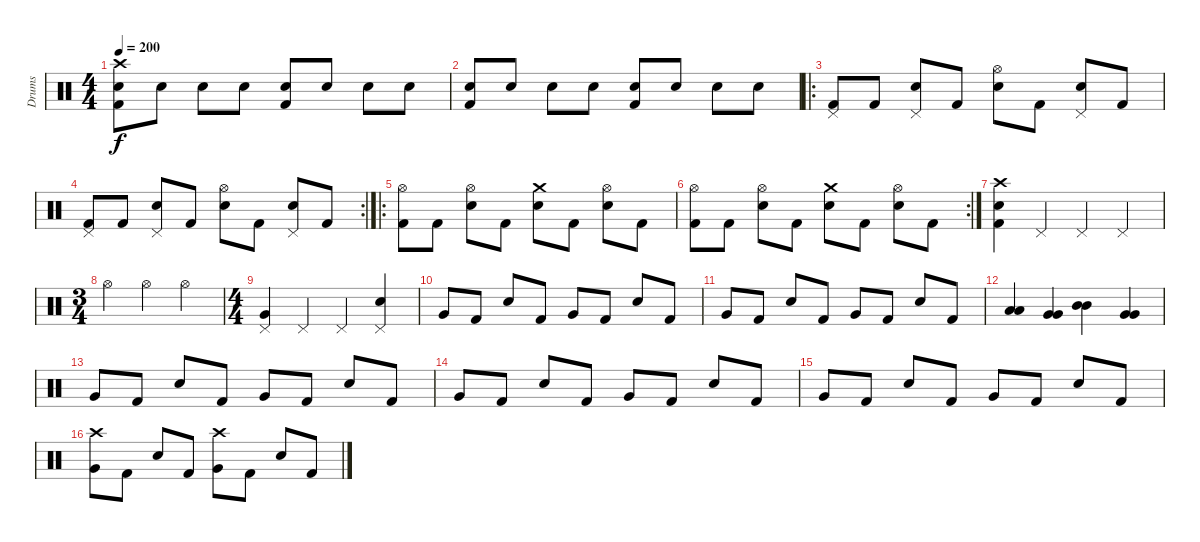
\track ("Drums" "Drums") {instrument percussion}
\staff {score}
\articulation defaults
\ts (4 4)
\tempo 200
\clef neutral
\ks c
("Crash high (hit)" "Electric Snare (hit)" "Kick (hit) 2").8{dy f} "Electric Snare (hit)".8 "Electric Snare (hit)".8 "Electric Snare (hit)".8 ("Electric Snare (hit)" "Kick (hit) 2").8 "Electric Snare (hit)".8 "Electric Snare (hit)".8 "Electric Snare (hit)".8 |
("Electric Snare (hit)" "Kick (hit) 2").8 "Electric Snare (hit)".8 "Electric Snare (hit)".8 "Electric Snare (hit)".8 ("Electric Snare (hit)" "Kick (hit) 2").8 "Electric Snare (hit)".8 "Electric Snare (hit)".8 "Electric Snare (hit)".8 |
\ro
("Pedal Hi-Hat (hit)" "Kick (hit) 2").8 "Kick (hit) 2".8 ("Pedal Hi-Hat (hit)" "Snare (hit) 2").8 "Kick (hit) 2".8 ("Hi-Hat (open)" "Snare (hit) 2").8 "Kick (hit) 2".8 ("Pedal Hi-Hat (hit)" "Snare (hit) 2").8 "Kick (hit) 2".8 |
\rc 2
("Pedal Hi-Hat (hit)" "Kick (hit) 2").8 "Kick (hit) 2".8 ("Pedal Hi-Hat (hit)" "Snare (hit) 2").8 "Kick (hit) 2".8 ("Hi-Hat (open)" "Snare (hit) 2").8 "Kick (hit) 2".8 ("Pedal Hi-Hat (hit)" "Snare (hit) 2").8 "Kick (hit) 2".8 |
\ro
("Hi-Hat (open)" "Kick (hit) 2").8 "Kick (hit) 2".8 ("Hi-Hat (open)" "Snare (hit) 2").8 "Kick (hit) 2".8 ("Crash medium (hit)" "Snare (hit) 2").8 "Kick (hit) 2".8 ("Hi-Hat (open)" "Snare (hit) 2").8 "Kick (hit) 2".8 |
\rc 2
("Hi-Hat (open)" "Kick (hit) 2").8 "Kick (hit) 2".8 ("Hi-Hat (open)" "Snare (hit) 2").8 "Kick (hit) 2".8 ("Crash medium (hit)" "Snare (hit) 2").8 "Kick (hit) 2".8 ("Hi-Hat (open)" "Snare (hit) 2").8 "Kick (hit) 2".8 |
("Crash high (hit)" "Electric Snare (hit)" "Kick (hit) 2").4 "Pedal Hi-Hat (hit)".4 "Pedal Hi-Hat (hit)".4 "Pedal Hi-Hat (hit)".4 |
\ts (3 4)
"Hi-Hat (open)".4 "Hi-Hat (open)".4 "Hi-Hat (open)".4 |
\ts (4 4)
("Very Low Tom (hit)" "Pedal Hi-Hat (hit)").4 "Pedal Hi-Hat (hit)".4 "Pedal Hi-Hat (hit)".4 ("Pedal Hi-Hat (hit)" "Electric Snare (hit)").4 |
"Very Low Tom (hit)".8 "Kick (hit) 2".8 "Electric Snare (hit)".8 "Kick (hit) 2".8 "Very Low Tom (hit)".8 "Kick (hit) 2".8 "Electric Snare (hit)".8 "Kick (hit) 2".8 |
"Very Low Tom (hit)".8 "Kick (hit) 2".8 "Electric Snare (hit)".8 "Kick (hit) 2".8 "Very Low Tom (hit)".8 "Kick (hit) 2".8 "Electric Snare (hit)".8 "Kick (hit) 2".8 |
("Low Tom (hit)" "Low Tom (hit)").4 ("Very Low Tom (hit)" "Very Low Tom (hit)").4 ("Mid Tom (hit)" "Mid Tom (hit)").4 ("Very Low Tom (hit)" "Very Low Tom (hit)").4 |
"Very Low Tom (hit)".8 "Kick (hit) 2".8 "Electric Snare (hit)".8 "Kick (hit) 2".8 "Very Low Tom (hit)".8 "Kick (hit) 2".8 "Electric Snare (hit)".8 "Kick (hit) 2".8 |
"Very Low Tom (hit)".8 "Kick (hit) 2".8 "Electric Snare (hit)".8 "Kick (hit) 2".8 "Very Low Tom (hit)".8 "Kick (hit) 2".8 "Electric Snare (hit)".8 "Kick (hit) 2".8 |
"Very Low Tom (hit)".8 "Kick (hit) 2".8 "Electric Snare (hit)".8 "Kick (hit) 2".8 "Very Low Tom (hit)".8 "Kick (hit) 2".8 "Electric Snare (hit)".8 "Kick (hit) 2".8 |
("Very Low Tom (hit)" "Crash high (hit)").8 "Kick (hit) 2".8 "Electric Snare (hit)".8 "Kick (hit) 2".8 ("Very Low Tom (hit)" "Crash high (hit)").8 "Kick (hit) 2".8 "Electric Snare (hit)".8 "Kick (hit) 2".8
